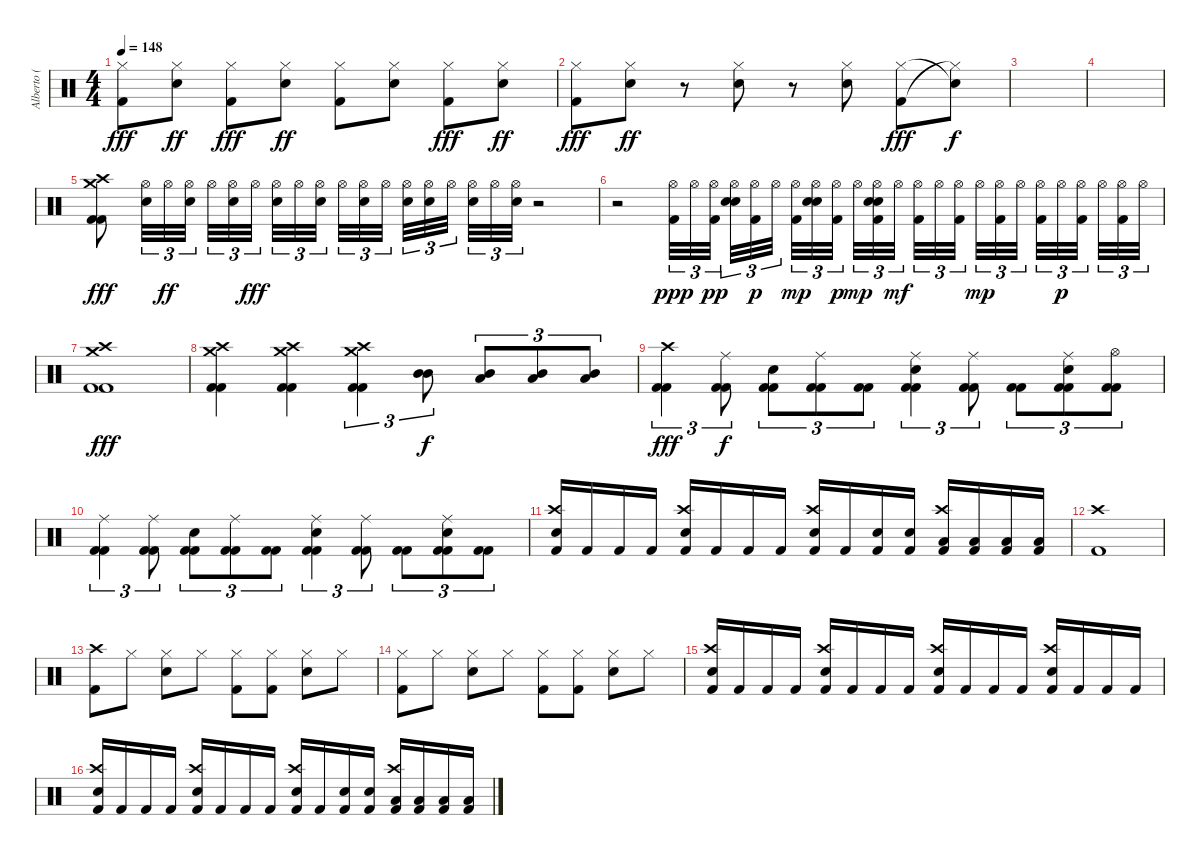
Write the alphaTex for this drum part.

\track ("Alberto ( Tohi )" "Alberto ( ") {instrument percussion}
\staff {score}
\articulation defaults
\ts (4 4)
\tempo 148
\clef neutral
\ks c
("Hi-Hat (closed)" "Kick (hit) 2").8{dy fff} ("Snare (hit) 2" "Hi-Hat (closed)").8{dy ff} ("Hi-Hat (closed)" "Kick (hit) 2").8{dy fff} ("Snare (hit) 2" "Hi-Hat (closed)").8{dy ff} ("Kick (hit) 2" "Hi-Hat (closed)").8 ("Snare (hit) 2" "Hi-Hat (closed)").8 ("Hi-Hat (closed)" "Kick (hit) 2").8{dy fff} ("Snare (hit) 2" "Hi-Hat (closed)").8{dy ff} |
("Hi-Hat (closed)" "Kick (hit) 2").8{dy fff} ("Snare (hit) 2" "Hi-Hat (closed)").8{dy ff} r.8 ("Snare (hit) 2" "Hi-Hat (closed)").8 r.8 ("Snare (hit) 2" "Hi-Hat (closed)").8 ("Hi-Hat (closed)" "Kick (hit) 2").8{dy fff} ("Snare (hit) 2"{t} "Hi-Hat (closed)"{t}).8{dy f} |
|
|
("Crash high (hit)" "Crash medium (hit)" "Kick (hit) 2" "Kick (hit) 2").8{dy fff} ("Hi-Hat (open)" "Snare (hit) 2").32{tu (3 2)} "Hi-Hat (open)".32{tu (3 2) dy ff} ("Hi-Hat (open)" "Snare (hit) 2").32{tu (3 2)} "Hi-Hat (open)".32{tu (3 2)} ("Hi-Hat (open)" "Snare (hit) 2").32{tu (3 2)} "Hi-Hat (open)".32{tu (3 2) dy fff} ("Hi-Hat (open)" "Snare (hit) 2").32{tu (3 2)} "Hi-Hat (open)".32{tu (3 2)} ("Hi-Hat (open)" "Snare (hit) 2").32{tu (3 2)} "Hi-Hat (open)".32{tu (3 2)} ("Hi-Hat (open)" "Snare (hit) 2").32{tu (3 2)} "Hi-Hat (open)".32{tu (3 2)} ("Hi-Hat (open)" "Snare (hit) 2").32{tu (3 2)} ("Hi-Hat (open)" "Snare (hit) 2").32{tu (3 2)} "Hi-Hat (open)".32{tu (3 2)} ("Hi-Hat (open)" "Snare (hit) 2").32{tu (3 2)} "Hi-Hat (open)".32{tu (3 2)} ("Hi-Hat (open)" "Snare (hit) 2").32{tu (3 2)} r.2 |
r.2 ("Hi-Hat (open)" "Kick (hit) 2").32{tu (3 2) dy ppp} "Hi-Hat (open)".32{tu (3 2)} ("Hi-Hat (open)" "Kick (hit) 2").32{tu (3 2) dy pp} ("Electric Snare (hit)" "Hi-Hat (open)" "Snare (hit) 2").32{tu (3 2)} ("Hi-Hat (open)" "Kick (hit) 2").32{tu (3 2) dy p} "Hi-Hat (open)".32{tu (3 2)} ("Hi-Hat (open)" "Kick (hit) 2").32{tu (3 2) dy mp} ("Electric Snare (hit)" "Hi-Hat (open)" "Snare (hit) 2").32{tu (3 2)} ("Hi-Hat (open)" "Kick (hit) 2").32{tu (3 2) dy p} "Hi-Hat (open)".32{tu (3 2) dy mp} ("Electric Snare (hit)" "Hi-Hat (open)" "Kick (hit) 2" "Snare (hit) 2").32{tu (3 2)} "Hi-Hat (open)".32{tu (3 2) dy mf} ("Hi-Hat (open)" "Kick (hit) 2").32{tu (3 2)} "Hi-Hat (open)".32{tu (3 2)} ("Hi-Hat (open)" "Kick (hit) 2").32{tu (3 2)} "Hi-Hat (open)".32{tu (3 2) dy mp} ("Hi-Hat (open)" "Kick (hit) 2").32{tu (3 2)} "Hi-Hat (open)".32{tu (3 2)} ("Hi-Hat (open)" "Kick (hit) 2").32{tu (3 2)} "Hi-Hat (open)".32{tu (3 2) dy p} ("Hi-Hat (open)" "Kick (hit) 2").32{tu (3 2)} "Hi-Hat (open)".32{tu (3 2)} ("Hi-Hat (open)" "Kick (hit) 2").32{tu (3 2)} "Hi-Hat (open)".32{tu (3 2)} |
("Crash high (hit)" "Crash medium (hit)" "Kick (hit) 2" "Kick (hit) 2").1{dy fff} |
("Crash high (hit)" "Crash medium (hit)" "Kick (hit) 2" "Kick (hit) 2").4 ("Crash high (hit)" "Crash medium (hit)" "Kick (hit) 2" "Kick (hit) 2").4 ("Crash high (hit)" "Crash medium (hit)" "Kick (hit) 2" "Kick (hit) 2").4{tu (3 2)} ("Mid Tom (hit)" "Mid Tom (hit)").8{tu (3 2) dy f} ("Low Tom (hit)" "Mid Tom (hit)").8{tu (3 2)} ("Low Tom (hit)" "Mid Tom (hit)").8{tu (3 2)} ("Low Tom (hit)" "Mid Tom (hit)").8{tu (3 2)} |
("Crash high (hit)" "Kick (hit) 2" "Kick (hit) 2").4{tu (3 2) dy fff} ("Ride (middle)" "Kick (hit) 2" "Kick (hit) 2").8{tu (3 2) dy f} ("Electric Snare (hit)" "Kick (hit) 2" "Kick (hit) 2").8{tu (3 2)} ("Ride (middle)" "Kick (hit) 2" "Kick (hit) 2").8{tu (3 2)} ("Kick (hit) 2" "Kick (hit) 2").8{tu (3 2)} ("Ride (middle)" "Electric Snare (hit)" "Kick (hit) 2" "Kick (hit) 2").4{tu (3 2)} ("Ride (middle)" "Kick (hit) 2" "Kick (hit) 2").8{tu (3 2)} ("Kick (hit) 2" "Kick (hit) 2").8{tu (3 2)} ("Ride (middle)" "Electric Snare (hit)" "Kick (hit) 2" "Kick (hit) 2").8{tu (3 2)} ("Hi-Hat (open)" "Kick (hit) 2" "Kick (hit) 2").8{tu (3 2)} |
("Ride (middle)" "Kick (hit) 2" "Kick (hit) 2").4{tu (3 2)} ("Ride (middle)" "Kick (hit) 2" "Kick (hit) 2").8{tu (3 2)} ("Electric Snare (hit)" "Kick (hit) 2" "Kick (hit) 2").8{tu (3 2)} ("Ride (middle)" "Kick (hit) 2" "Kick (hit) 2").8{tu (3 2)} ("Kick (hit) 2" "Kick (hit) 2").8{tu (3 2)} ("Ride (middle)" "Electric Snare (hit)" "Kick (hit) 2" "Kick (hit) 2").4{tu (3 2)} ("Ride (middle)" "Kick (hit) 2" "Kick (hit) 2").8{tu (3 2)} ("Kick (hit) 2" "Kick (hit) 2").8{tu (3 2)} ("Ride (middle)" "Electric Snare (hit)" "Kick (hit) 2" "Kick (hit) 2").8{tu (3 2)} ("Kick (hit) 2" "Kick (hit) 2").8{tu (3 2)} |
("Crash high (hit)" "Electric Snare (hit)" "Kick (hit) 2").16 "Kick (hit) 2".16 "Kick (hit) 2".16 "Kick (hit) 2".16 ("Crash high (hit)" "Electric Snare (hit)" "Kick (hit) 2").16 "Kick (hit) 2".16 "Kick (hit) 2".16 "Kick (hit) 2".16 ("Crash high (hit)" "Electric Snare (hit)" "Kick (hit) 2").16 "Kick (hit) 2".16 ("Electric Snare (hit)" "Kick (hit) 2").16 ("Electric Snare (hit)" "Kick (hit) 2").16 ("Crash high (hit)" "Low Tom (hit)" "Kick (hit) 2").16 ("Low Tom (hit)" "Kick (hit) 2").16 ("Low Floor Tom (hit)" "Kick (hit) 2").16 ("Low Floor Tom (hit)" "Kick (hit) 2").16 |
("Crash high (hit)" "Kick (hit) 2").1 |
("Crash high (hit)" "Kick (hit) 2").8 "Hi-Hat (closed)".8 ("Hi-Hat (closed)" "Electric Snare (hit)").8 "Hi-Hat (closed)".8 ("Hi-Hat (closed)" "Kick (hit) 2").8 ("Hi-Hat (closed)" "Kick (hit) 2").8 ("Hi-Hat (closed)" "Electric Snare (hit)").8 "Hi-Hat (closed)".8 |
("Hi-Hat (closed)" "Kick (hit) 2").8 "Hi-Hat (closed)".8 ("Hi-Hat (closed)" "Electric Snare (hit)").8 "Hi-Hat (closed)".8 ("Hi-Hat (closed)" "Kick (hit) 2").8 ("Hi-Hat (closed)" "Kick (hit) 2").8 ("Hi-Hat (closed)" "Electric Snare (hit)").8 "Hi-Hat (closed)".8 |
("Crash high (hit)" "Electric Snare (hit)" "Kick (hit) 2").16 "Kick (hit) 2".16 "Kick (hit) 2".16 "Kick (hit) 2".16 ("Crash high (hit)" "Electric Snare (hit)" "Kick (hit) 2").16 "Kick (hit) 2".16 "Kick (hit) 2".16 "Kick (hit) 2".16 ("Crash high (hit)" "Electric Snare (hit)" "Kick (hit) 2").16 "Kick (hit) 2".16 "Kick (hit) 2".16 "Kick (hit) 2".16 ("Crash high (hit)" "Electric Snare (hit)" "Kick (hit) 2").16 "Kick (hit) 2".16 "Kick (hit) 2".16 "Kick (hit) 2".16 |
("Crash high (hit)" "Electric Snare (hit)" "Kick (hit) 2").16 "Kick (hit) 2".16 "Kick (hit) 2".16 "Kick (hit) 2".16 ("Crash high (hit)" "Electric Snare (hit)" "Kick (hit) 2").16 "Kick (hit) 2".16 "Kick (hit) 2".16 "Kick (hit) 2".16 ("Crash high (hit)" "Electric Snare (hit)" "Kick (hit) 2").16 "Kick (hit) 2".16 ("Electric Snare (hit)" "Kick (hit) 2").16 ("Electric Snare (hit)" "Kick (hit) 2").16 ("Crash high (hit)" "Low Tom (hit)" "Kick (hit) 2").16 ("Low Tom (hit)" "Kick (hit) 2").16 ("Low Floor Tom (hit)" "Kick (hit) 2").16 ("Low Floor Tom (hit)" "Kick (hit) 2").16
